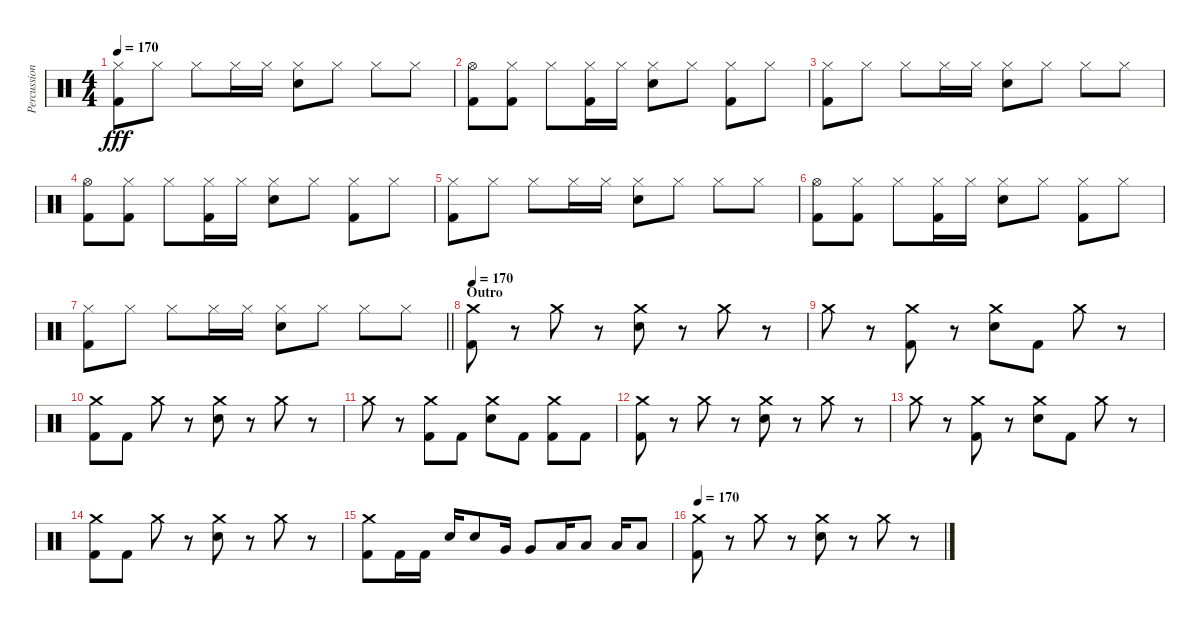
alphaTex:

\track ("Percussion" "Percussion") {instrument percussion}
\staff {score}
\articulation defaults
\ts (4 4)
\tempo 170
\clef neutral
\ks c
("Hi-Hat (closed)" "Kick (hit) 2").8{dy fff} "Hi-Hat (closed)".8 "Hi-Hat (closed)".8 "Hi-Hat (closed)".16 "Hi-Hat (closed)".16 ("Hi-Hat (closed)" "Electric Snare (hit)").8 "Hi-Hat (closed)".8 "Hi-Hat (closed)".8 "Hi-Hat (closed)".8 |
("Hi-Hat (open)" "Kick (hit) 2").8 ("Hi-Hat (closed)" "Kick (hit) 2").8 "Hi-Hat (closed)".8 ("Hi-Hat (closed)" "Kick (hit) 2").16 "Hi-Hat (closed)".16 ("Hi-Hat (closed)" "Electric Snare (hit)").8 "Hi-Hat (closed)".8 ("Hi-Hat (closed)" "Kick (hit) 2").8 "Hi-Hat (closed)".8 |
("Hi-Hat (closed)" "Kick (hit) 2").8 "Hi-Hat (closed)".8 "Hi-Hat (closed)".8 "Hi-Hat (closed)".16 "Hi-Hat (closed)".16 ("Hi-Hat (closed)" "Electric Snare (hit)").8 "Hi-Hat (closed)".8 "Hi-Hat (closed)".8 "Hi-Hat (closed)".8 |
("Hi-Hat (open)" "Kick (hit) 2").8 ("Hi-Hat (closed)" "Kick (hit) 2").8 "Hi-Hat (closed)".8 ("Hi-Hat (closed)" "Kick (hit) 2").16 "Hi-Hat (closed)".16 ("Hi-Hat (closed)" "Electric Snare (hit)").8 "Hi-Hat (closed)".8 ("Hi-Hat (closed)" "Kick (hit) 2").8 "Hi-Hat (closed)".8 |
("Hi-Hat (closed)" "Kick (hit) 2").8 "Hi-Hat (closed)".8 "Hi-Hat (closed)".8 "Hi-Hat (closed)".16 "Hi-Hat (closed)".16 ("Hi-Hat (closed)" "Electric Snare (hit)").8 "Hi-Hat (closed)".8 "Hi-Hat (closed)".8 "Hi-Hat (closed)".8 |
("Hi-Hat (open)" "Kick (hit) 2").8 ("Hi-Hat (closed)" "Kick (hit) 2").8 "Hi-Hat (closed)".8 ("Hi-Hat (closed)" "Kick (hit) 2").16 "Hi-Hat (closed)".16 ("Hi-Hat (closed)" "Electric Snare (hit)").8 "Hi-Hat (closed)".8 ("Hi-Hat (closed)" "Kick (hit) 2").8 "Hi-Hat (closed)".8 |
\barLineRight lightlight
("Hi-Hat (closed)" "Kick (hit) 2").8 "Hi-Hat (closed)".8 "Hi-Hat (closed)".8 "Hi-Hat (closed)".16 "Hi-Hat (closed)".16 ("Hi-Hat (closed)" "Electric Snare (hit)").8 "Hi-Hat (closed)".8 "Hi-Hat (closed)".8 "Hi-Hat (closed)".8 |
\section ("" "Outro")
\tempo 170
("Crash medium (hit)" "Kick (hit) 2").8 r.8 "Crash medium (hit)".8 r.8 ("Crash medium (hit)" "Electric Snare (hit)").8 r.8 "Crash medium (hit)".8 r.8 |
"Crash medium (hit)".8 r.8 ("Crash medium (hit)" "Kick (hit) 2").8 r.8 ("Crash medium (hit)" "Electric Snare (hit)").8 "Kick (hit) 2".8 "Crash medium (hit)".8 r.8 |
("Crash medium (hit)" "Kick (hit) 2").8 "Kick (hit) 2".8 "Crash medium (hit)".8 r.8 ("Crash medium (hit)" "Electric Snare (hit)").8 r.8 "Crash medium (hit)".8 r.8 |
"Crash medium (hit)".8 r.8 ("Crash medium (hit)" "Kick (hit) 2").8 "Kick (hit) 2".8 ("Crash medium (hit)" "Electric Snare (hit)").8 "Kick (hit) 2".8 ("Crash medium (hit)" "Kick (hit) 2").8 "Kick (hit) 2".8 |
("Crash medium (hit)" "Kick (hit) 2").8 r.8 "Crash medium (hit)".8 r.8 ("Crash medium (hit)" "Electric Snare (hit)").8 r.8 "Crash medium (hit)".8 r.8 |
"Crash medium (hit)".8 r.8 ("Crash medium (hit)" "Kick (hit) 2").8 r.8 ("Crash medium (hit)" "Electric Snare (hit)").8 "Kick (hit) 2".8 "Crash medium (hit)".8 r.8 |
("Crash medium (hit)" "Kick (hit) 2").8 "Kick (hit) 2".8 "Crash medium (hit)".8 r.8 ("Crash medium (hit)" "Electric Snare (hit)").8 r.8 "Crash medium (hit)".8 r.8 |
("Crash medium (hit)" "Kick (hit) 2").8 "Kick (hit) 2".16 "Kick (hit) 2".16 "Electric Snare (hit)".16 "Electric Snare (hit)".8 "Very Low Tom (hit)".16 "Very Low Tom (hit)".8 "Low Tom (hit)".16 "Low Tom (hit)".8 "Low Floor Tom (hit)".16 "Low Floor Tom (hit)".8 |
\tempo 170
("Crash medium (hit)" "Kick (hit) 2").8 r.8 "Crash medium (hit)".8 r.8 ("Crash medium (hit)" "Electric Snare (hit)").8 r.8 "Crash medium (hit)".8 r.8
